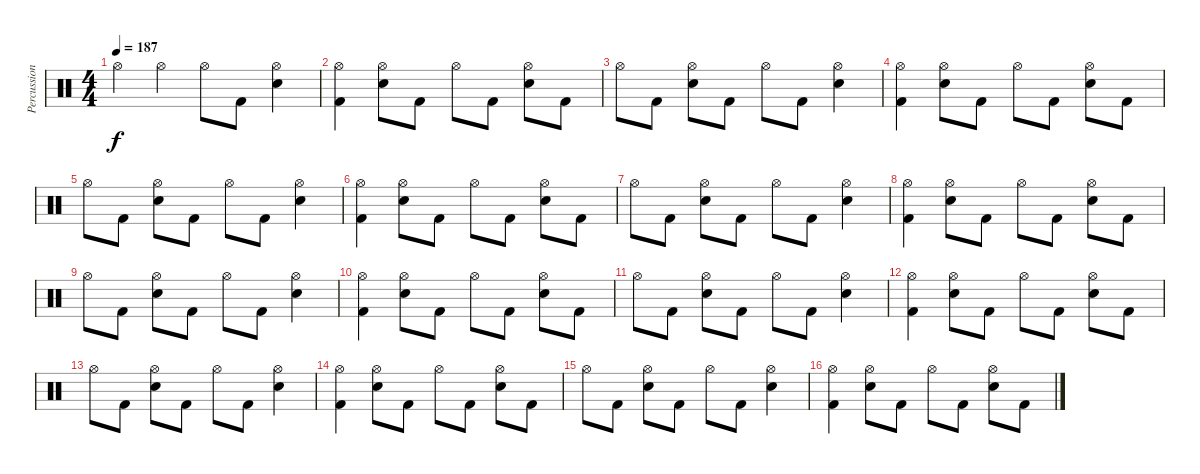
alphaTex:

\track ("Percussion" "Percussion") {instrument percussion}
\staff {score}
\articulation defaults
\ts (4 4)
\tempo 187
\clef neutral
\ks c "Hi-Hat (open)".4{dy f} "Hi-Hat (open)".4 "Hi-Hat (open)".8 "Kick (hit) 2".8
("Hi-Hat (open)" "Snare (hit) 2").4 |
("Hi-Hat (open)" "Kick (hit) 2").4 ("Hi-Hat (open)" "Snare (hit) 2").8 "Kick (hit) 2".8 "Hi-Hat (open)".8 "Kick (hit) 2".8 ("Hi-Hat (open)" "Snare (hit) 2").8 "Kick (hit) 2".8 |
"Hi-Hat (open)".8 "Kick (hit) 2".8 ("Hi-Hat (open)" "Snare (hit) 2").8 "Kick (hit) 2".8 "Hi-Hat (open)".8 "Kick (hit) 2".8 ("Hi-Hat (open)" "Snare (hit) 2").4 |
("Hi-Hat (open)" "Kick (hit) 2").4 ("Hi-Hat (open)" "Snare (hit) 2").8 "Kick (hit) 2".8 "Hi-Hat (open)".8 "Kick (hit) 2".8 ("Hi-Hat (open)" "Snare (hit) 2").8 "Kick (hit) 2".8 |
"Hi-Hat (open)".8 "Kick (hit) 2".8 ("Hi-Hat (open)" "Snare (hit) 2").8 "Kick (hit) 2".8 "Hi-Hat (open)".8 "Kick (hit) 2".8 ("Hi-Hat (open)" "Snare (hit) 2").4 |
("Hi-Hat (open)" "Kick (hit) 2").4 ("Hi-Hat (open)" "Snare (hit) 2").8 "Kick (hit) 2".8 "Hi-Hat (open)".8 "Kick (hit) 2".8 ("Hi-Hat (open)" "Snare (hit) 2").8 "Kick (hit) 2".8 |
"Hi-Hat (open)".8 "Kick (hit) 2".8 ("Hi-Hat (open)" "Snare (hit) 2").8 "Kick (hit) 2".8 "Hi-Hat (open)".8 "Kick (hit) 2".8 ("Hi-Hat (open)" "Snare (hit) 2").4 |
("Hi-Hat (open)" "Kick (hit) 2").4 ("Hi-Hat (open)" "Snare (hit) 2").8 "Kick (hit) 2".8 "Hi-Hat (open)".8 "Kick (hit) 2".8 ("Hi-Hat (open)" "Snare (hit) 2").8 "Kick (hit) 2".8 |
"Hi-Hat (open)".8 "Kick (hit) 2".8 ("Hi-Hat (open)" "Snare (hit) 2").8 "Kick (hit) 2".8 "Hi-Hat (open)".8 "Kick (hit) 2".8 ("Hi-Hat (open)" "Snare (hit) 2").4 |
("Hi-Hat (open)" "Kick (hit) 2").4 ("Hi-Hat (open)" "Snare (hit) 2").8 "Kick (hit) 2".8 "Hi-Hat (open)".8 "Kick (hit) 2".8 ("Hi-Hat (open)" "Snare (hit) 2").8 "Kick (hit) 2".8 |
"Hi-Hat (open)".8 "Kick (hit) 2".8 ("Hi-Hat (open)" "Snare (hit) 2").8 "Kick (hit) 2".8 "Hi-Hat (open)".8 "Kick (hit) 2".8 ("Hi-Hat (open)" "Snare (hit) 2").4 |
("Hi-Hat (open)" "Kick (hit) 2").4 ("Hi-Hat (open)" "Snare (hit) 2").8 "Kick (hit) 2".8 "Hi-Hat (open)".8 "Kick (hit) 2".8 ("Hi-Hat (open)" "Snare (hit) 2").8 "Kick (hit) 2".8 |
"Hi-Hat (open)".8 "Kick (hit) 2".8 ("Hi-Hat (open)" "Snare (hit) 2").8 "Kick (hit) 2".8 "Hi-Hat (open)".8 "Kick (hit) 2".8 ("Hi-Hat (open)" "Snare (hit) 2").4 |
("Hi-Hat (open)" "Kick (hit) 2").4 ("Hi-Hat (open)" "Snare (hit) 2").8 "Kick (hit) 2".8 "Hi-Hat (open)".8 "Kick (hit) 2".8 ("Hi-Hat (open)" "Snare (hit) 2").8 "Kick (hit) 2".8 |
"Hi-Hat (open)".8 "Kick (hit) 2".8 ("Hi-Hat (open)" "Snare (hit) 2").8 "Kick (hit) 2".8 "Hi-Hat (open)".8 "Kick (hit) 2".8 ("Hi-Hat (open)" "Snare (hit) 2").4 |
("Hi-Hat (open)" "Kick (hit) 2").4 ("Hi-Hat (open)" "Snare (hit) 2").8 "Kick (hit) 2".8 "Hi-Hat (open)".8 "Kick (hit) 2".8 ("Hi-Hat (open)" "Snare (hit) 2").8 "Kick (hit) 2".8
